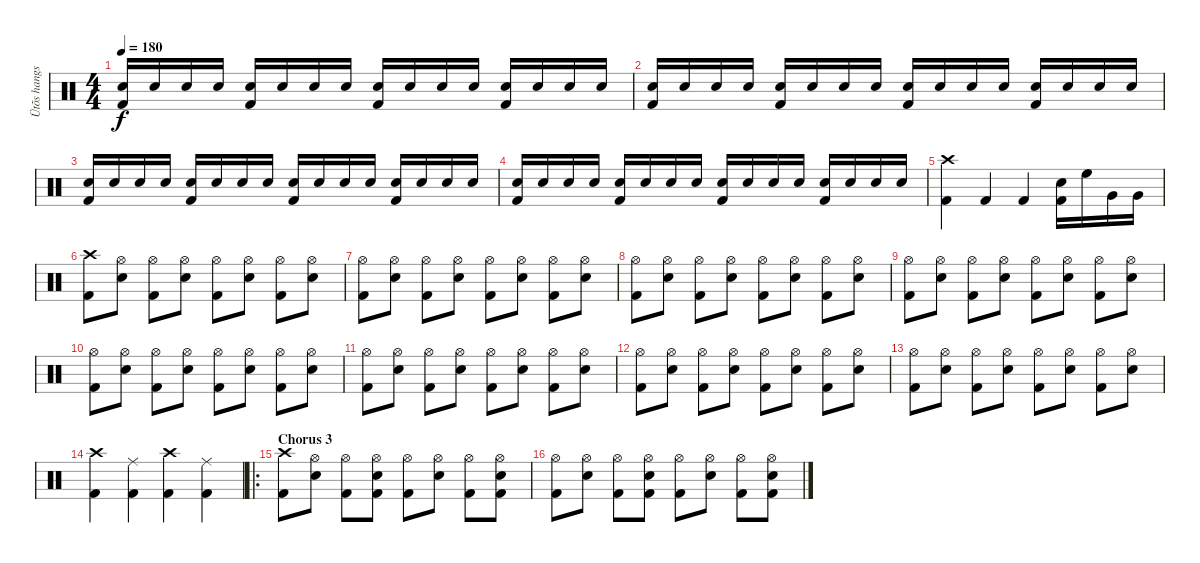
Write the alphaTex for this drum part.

\track ("Ütõs hangszer" "Ütõs hangs") {instrument percussion}
\staff {score}
\articulation defaults
\ts (4 4)
\tempo 180
\clef neutral
\ks c
("Snare (hit) 2" "Kick (hit) 2").16{dy f} "Electric Snare (hit)".16 "Electric Snare (hit)".16 "Electric Snare (hit)".16 ("Snare (hit) 2" "Kick (hit) 2").16 "Electric Snare (hit)".16 "Electric Snare (hit)".16 "Electric Snare (hit)".16 ("Snare (hit) 2" "Kick (hit) 2").16 "Electric Snare (hit)".16 "Electric Snare (hit)".16 "Electric Snare (hit)".16 ("Snare (hit) 2" "Kick (hit) 2").16 "Electric Snare (hit)".16 "Electric Snare (hit)".16 "Electric Snare (hit)".16 |
("Snare (hit) 2" "Kick (hit) 2").16 "Electric Snare (hit)".16 "Electric Snare (hit)".16 "Electric Snare (hit)".16 ("Snare (hit) 2" "Kick (hit) 2").16 "Electric Snare (hit)".16 "Electric Snare (hit)".16 "Electric Snare (hit)".16 ("Snare (hit) 2" "Kick (hit) 2").16 "Electric Snare (hit)".16 "Electric Snare (hit)".16 "Electric Snare (hit)".16 ("Snare (hit) 2" "Kick (hit) 2").16 "Electric Snare (hit)".16 "Electric Snare (hit)".16 "Electric Snare (hit)".16 |
("Snare (hit) 2" "Kick (hit) 2").16 "Electric Snare (hit)".16 "Electric Snare (hit)".16 "Electric Snare (hit)".16 ("Snare (hit) 2" "Kick (hit) 2").16 "Electric Snare (hit)".16 "Electric Snare (hit)".16 "Electric Snare (hit)".16 ("Snare (hit) 2" "Kick (hit) 2").16 "Electric Snare (hit)".16 "Electric Snare (hit)".16 "Electric Snare (hit)".16 ("Snare (hit) 2" "Kick (hit) 2").16 "Electric Snare (hit)".16 "Electric Snare (hit)".16 "Electric Snare (hit)".16 |
("Snare (hit) 2" "Kick (hit) 2").16 "Electric Snare (hit)".16 "Electric Snare (hit)".16 "Electric Snare (hit)".16 ("Snare (hit) 2" "Kick (hit) 2").16 "Electric Snare (hit)".16 "Electric Snare (hit)".16 "Electric Snare (hit)".16 ("Snare (hit) 2" "Kick (hit) 2").16 "Electric Snare (hit)".16 "Electric Snare (hit)".16 "Electric Snare (hit)".16 ("Snare (hit) 2" "Kick (hit) 2").16 "Electric Snare (hit)".16 "Electric Snare (hit)".16 "Electric Snare (hit)".16 |
("Crash high (hit)" "Kick (hit) 2").4 "Kick (hit) 2".4 "Kick (hit) 2".4 ("Electric Snare (hit)" "Kick (hit) 2").16 "High Floor Tom (hit)".16 "Very Low Tom (hit)".16 "Very Low Tom (hit)".16 |
("Crash high (hit)" "Kick (hit) 2").8 ("Hi-Hat (open)" "Electric Snare (hit)").8 ("Hi-Hat (open)" "Kick (hit) 2").8 ("Hi-Hat (open)" "Electric Snare (hit)").8 ("Hi-Hat (open)" "Kick (hit) 2").8 ("Hi-Hat (open)" "Electric Snare (hit)").8 ("Hi-Hat (open)" "Kick (hit) 2").8 ("Hi-Hat (open)" "Electric Snare (hit)").8 |
("Hi-Hat (open)" "Kick (hit) 2").8 ("Hi-Hat (open)" "Electric Snare (hit)").8 ("Hi-Hat (open)" "Kick (hit) 2").8 ("Hi-Hat (open)" "Electric Snare (hit)").8 ("Hi-Hat (open)" "Kick (hit) 2").8 ("Hi-Hat (open)" "Electric Snare (hit)").8 ("Hi-Hat (open)" "Kick (hit) 2").8 ("Hi-Hat (open)" "Electric Snare (hit)").8 |
("Hi-Hat (open)" "Kick (hit) 2").8 ("Hi-Hat (open)" "Electric Snare (hit)").8 ("Hi-Hat (open)" "Kick (hit) 2").8 ("Hi-Hat (open)" "Electric Snare (hit)").8 ("Hi-Hat (open)" "Kick (hit) 2").8 ("Hi-Hat (open)" "Electric Snare (hit)").8 ("Hi-Hat (open)" "Kick (hit) 2").8 ("Hi-Hat (open)" "Electric Snare (hit)").8 |
("Hi-Hat (open)" "Kick (hit) 2").8 ("Hi-Hat (open)" "Electric Snare (hit)").8 ("Hi-Hat (open)" "Kick (hit) 2").8 ("Hi-Hat (open)" "Electric Snare (hit)").8 ("Hi-Hat (open)" "Kick (hit) 2").8 ("Hi-Hat (open)" "Electric Snare (hit)").8 ("Hi-Hat (open)" "Kick (hit) 2").8 ("Hi-Hat (open)" "Electric Snare (hit)").8 |
("Hi-Hat (open)" "Kick (hit) 2").8 ("Hi-Hat (open)" "Electric Snare (hit)").8 ("Hi-Hat (open)" "Kick (hit) 2").8 ("Hi-Hat (open)" "Electric Snare (hit)").8 ("Hi-Hat (open)" "Kick (hit) 2").8 ("Hi-Hat (open)" "Electric Snare (hit)").8 ("Hi-Hat (open)" "Kick (hit) 2").8 ("Hi-Hat (open)" "Electric Snare (hit)").8 |
("Hi-Hat (open)" "Kick (hit) 2").8 ("Hi-Hat (open)" "Electric Snare (hit)").8 ("Hi-Hat (open)" "Kick (hit) 2").8 ("Hi-Hat (open)" "Electric Snare (hit)").8 ("Hi-Hat (open)" "Kick (hit) 2").8 ("Hi-Hat (open)" "Electric Snare (hit)").8 ("Hi-Hat (open)" "Kick (hit) 2").8 ("Hi-Hat (open)" "Electric Snare (hit)").8 |
("Hi-Hat (open)" "Kick (hit) 2").8 ("Hi-Hat (open)" "Electric Snare (hit)").8 ("Hi-Hat (open)" "Kick (hit) 2").8 ("Hi-Hat (open)" "Electric Snare (hit)").8 ("Hi-Hat (open)" "Kick (hit) 2").8 ("Hi-Hat (open)" "Electric Snare (hit)").8 ("Hi-Hat (open)" "Kick (hit) 2").8 ("Hi-Hat (open)" "Electric Snare (hit)").8 |
("Hi-Hat (open)" "Kick (hit) 2").8 ("Hi-Hat (open)" "Electric Snare (hit)").8 ("Hi-Hat (open)" "Kick (hit) 2").8 ("Hi-Hat (open)" "Electric Snare (hit)").8 ("Hi-Hat (open)" "Kick (hit) 2").8 ("Hi-Hat (open)" "Electric Snare (hit)").8 ("Hi-Hat (open)" "Kick (hit) 2").8 ("Hi-Hat (open)" "Electric Snare (hit)").8 |
("Crash high (hit)" "Kick (hit) 2").4 ("Ride (middle)" "Kick (hit) 2").4 ("Crash high (hit)" "Kick (hit) 2").4 ("Ride (middle)" "Kick (hit) 2").4 |
\ro
\section ("" "Chorus 3")
("Crash high (hit)" "Kick (hit) 2").8 ("Hi-Hat (open)" "Electric Snare (hit)").8 ("Hi-Hat (open)" "Kick (hit) 2").8 ("Hi-Hat (open)" "Electric Snare (hit)" "Kick (hit) 2").8 ("Hi-Hat (open)" "Kick (hit) 2").8 ("Hi-Hat (open)" "Electric Snare (hit)").8 ("Hi-Hat (open)" "Kick (hit) 2").8 ("Hi-Hat (open)" "Electric Snare (hit)" "Kick (hit) 2").8 |
("Hi-Hat (open)" "Kick (hit) 2").8 ("Hi-Hat (open)" "Electric Snare (hit)").8 ("Hi-Hat (open)" "Kick (hit) 2").8 ("Hi-Hat (open)" "Electric Snare (hit)" "Kick (hit) 2").8 ("Hi-Hat (open)" "Kick (hit) 2").8 ("Hi-Hat (open)" "Electric Snare (hit)").8 ("Hi-Hat (open)" "Kick (hit) 2").8 ("Hi-Hat (open)" "Electric Snare (hit)" "Kick (hit) 2").8
